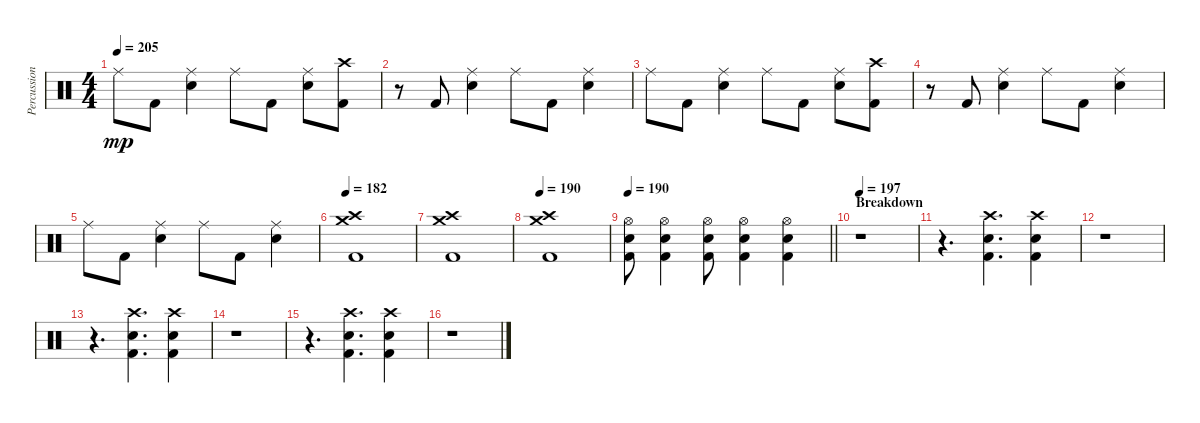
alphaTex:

\track ("Percussion" "Percussion") {instrument percussion}
\staff {score}
\articulation defaults
\ts (4 4)
\tempo 205
\clef neutral
\ks c "Ride (middle)".8{dy mp} "Kick (hit) 2".8
("Ride (middle)" "Snare (hit) 2").4 "Ride (middle)".8 "Kick (hit) 2".8 ("Ride (middle)" "Snare (hit) 2").8 ("Crash high (hit)" "Kick (hit) 2").8 |
r.8 "Kick (hit) 2".8 ("Ride (middle)" "Snare (hit) 2").4 "Ride (middle)".8 "Kick (hit) 2".8 ("Ride (middle)" "Snare (hit) 2").4 |
"Ride (middle)".8 "Kick (hit) 2".8 ("Ride (middle)" "Snare (hit) 2").4 "Ride (middle)".8 "Kick (hit) 2".8 ("Ride (middle)" "Snare (hit) 2").8 ("Crash high (hit)" "Kick (hit) 2").8 |
r.8 "Kick (hit) 2".8 ("Ride (middle)" "Snare (hit) 2").4 "Ride (middle)".8 "Kick (hit) 2".8 ("Ride (middle)" "Snare (hit) 2").4 |
"Ride (middle)".8 "Kick (hit) 2".8 ("Ride (middle)" "Snare (hit) 2").4 "Ride (middle)".8 "Kick (hit) 2".8 ("Ride (middle)" "Snare (hit) 2").4 |
\tempo 182
("Crash high (hit)" "Crash medium (hit)" "Kick (hit) 2").1 |
("Crash high (hit)" "Crash medium (hit)" "Kick (hit) 2").1 |
\tempo 190
("Crash high (hit)" "Crash medium (hit)" "Kick (hit) 2").1 |
\tempo 190
\barLineRight lightlight
("Hi-Hat (open)" "Snare (hit) 2" "Kick (hit) 2").8 ("Hi-Hat (open)" "Snare (hit) 2" "Kick (hit) 2").4 ("Hi-Hat (open)" "Snare (hit) 2" "Kick (hit) 2").8 ("Hi-Hat (open)" "Snare (hit) 2" "Kick (hit) 2").4 ("Hi-Hat (open)" "Snare (hit) 2" "Kick (hit) 2").4 |
\section ("" "Breakdown")
\tempo 197
r.1 |
r.4{d} ("Crash high (hit)" "Snare (hit) 2" "Kick (hit) 2").4{d} ("Crash high (hit)" "Snare (hit) 2" "Kick (hit) 2").4 |
r.1 |
r.4{d} ("Crash high (hit)" "Snare (hit) 2" "Kick (hit) 2").4{d} ("Crash high (hit)" "Snare (hit) 2" "Kick (hit) 2").4 |
r.1 |
r.4{d} ("Crash high (hit)" "Snare (hit) 2" "Kick (hit) 2").4{d} ("Crash high (hit)" "Snare (hit) 2" "Kick (hit) 2").4 |
r.1
